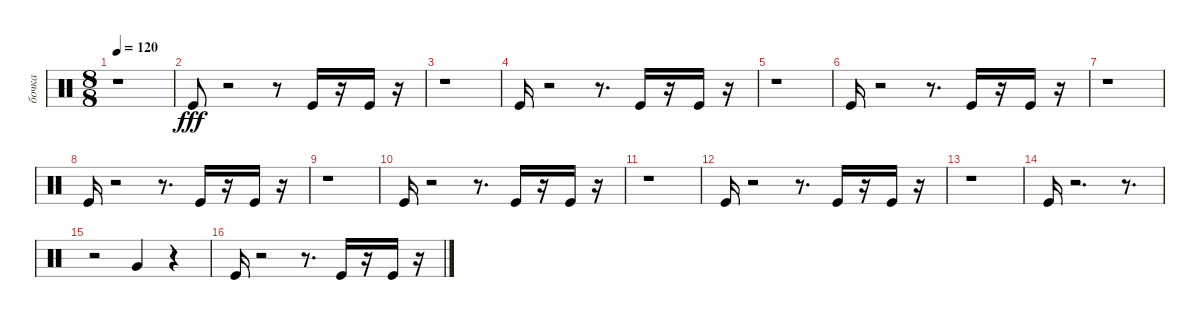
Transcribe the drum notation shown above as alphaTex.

\track ("бочка" "бочка") {instrument percussion}
\staff {score}
\articulation defaults
\ts (8 8)
\tempo 120
\clef neutral
\ks c
r.1{dy fff} |
"Kick (hit)".8 r.2 r.8 "Kick (hit)".16 r.16 "Kick (hit)".16 r.16 |
r.1 |
"Kick (hit)".16 r.2 r.8{d} "Kick (hit)".16 r.16 "Kick (hit)".16 r.16 |
r.1 |
"Kick (hit)".16 r.2 r.8{d} "Kick (hit)".16 r.16 "Kick (hit)".16 r.16 |
r.1 |
"Kick (hit)".16 r.2 r.8{d} "Kick (hit)".16 r.16 "Kick (hit)".16 r.16 |
r.1 |
"Kick (hit)".16 r.2 r.8{d} "Kick (hit)".16 r.16 "Kick (hit)".16 r.16 |
r.1 |
"Kick (hit)".16 r.2 r.8{d} "Kick (hit)".16 r.16 "Kick (hit)".16 r.16 |
r.1 |
"Kick (hit)".16 r.2{d} r.8{d} |
r.2 "Very Low Tom (hit)".4 r.4 |
"Kick (hit)".16 r.2 r.8{d} "Kick (hit)".16 r.16 "Kick (hit)".16 r.16
